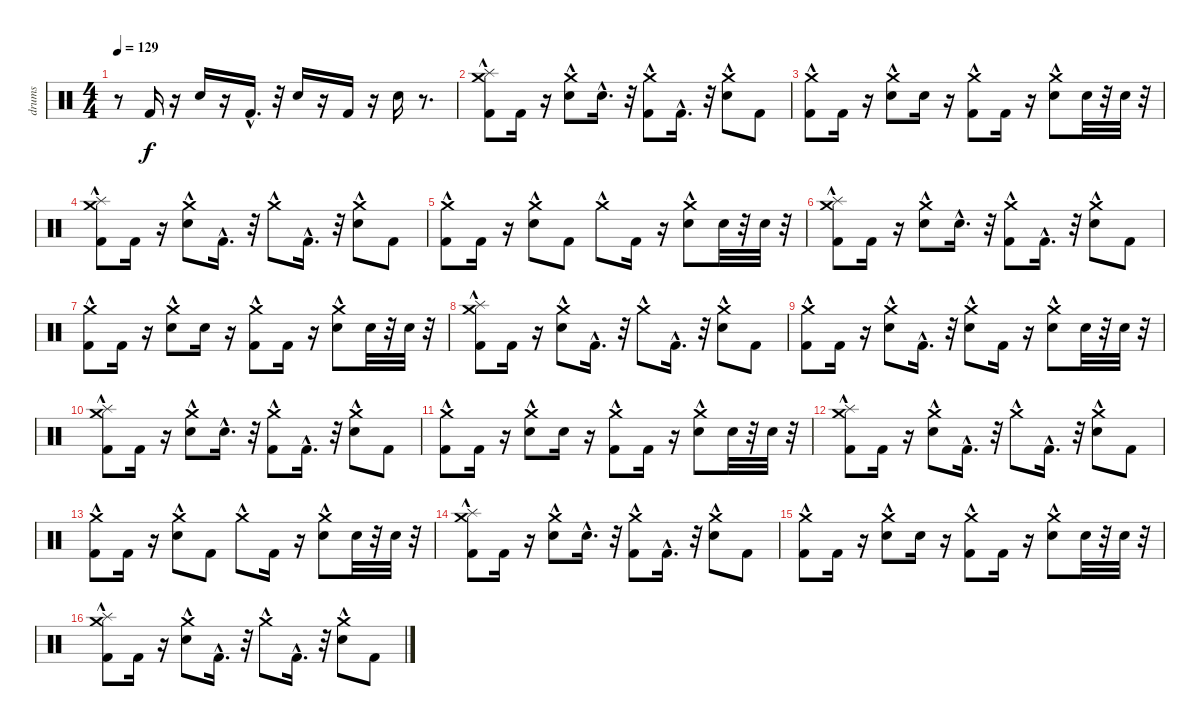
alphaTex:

\track ("drums" "drums") {instrument percussion}
\staff {score}
\articulation defaults
\ts (4 4)
\tempo 129
\clef neutral
\ks c
r.8{dy f} "Kick (hit) 2".16 r.16 "Snare (hit) 2".16 r.16 "Kick (hit) 2"{hac}.16{d} r.32 "Snare (hit) 2".16 r.16 "Kick (hit) 2".16 r.16 "Snare (hit) 2".16 r.8{d} |
("Kick (hit) 2" "Splash (hit)"{hac} "Crash medium (hit)"{hac}).8 "Kick (hit) 2".16 r.16 ("Snare (hit) 2" "Crash medium (hit)"{hac}).8 "Snare (hit) 2"{hac}.16{d} r.32 ("Kick (hit) 2"{hac} "Crash medium (hit)"{hac}).8 "Kick (hit) 2"{hac}.16{d} r.32 ("Snare (hit) 2" "Crash medium (hit)"{hac}).8 "Kick (hit) 2".8 |
("Kick (hit) 2" "Crash medium (hit)"{hac}).8 "Kick (hit) 2".16 r.16 ("Snare (hit) 2" "Crash medium (hit)"{hac}).8 "Snare (hit) 2".16 r.16 ("Kick (hit) 2" "Crash medium (hit)"{hac}).8 "Kick (hit) 2".16 r.16 ("Snare (hit) 2" "Crash medium (hit)"{hac}).8 "Snare (hit) 2".32 r.32 "Snare (hit) 2".32 r.32 |
("Crash medium (hit)"{hac} "Kick (hit) 2" "Splash (hit)"{hac}).8 "Kick (hit) 2".16 r.16 ("Crash medium (hit)"{hac} "Snare (hit) 2").8 "Kick (hit) 2"{hac}.16{d} r.32 "Crash medium (hit)"{hac}.8 "Kick (hit) 2"{hac}.16{d} r.32 ("Crash medium (hit)"{hac} "Snare (hit) 2").8 "Kick (hit) 2".8 |
("Crash medium (hit)"{hac} "Kick (hit) 2").8 "Kick (hit) 2".16 r.16 ("Crash medium (hit)"{hac} "Snare (hit) 2").8 "Kick (hit) 2".8 "Crash medium (hit)"{hac}.8 "Kick (hit) 2".16 r.16 ("Crash medium (hit)"{hac} "Snare (hit) 2").8 "Snare (hit) 2".32 r.32 "Snare (hit) 2".32 r.32 |
("Kick (hit) 2" "Splash (hit)"{hac} "Crash medium (hit)"{hac}).8 "Kick (hit) 2".16 r.16 ("Snare (hit) 2" "Crash medium (hit)"{hac}).8 "Snare (hit) 2"{hac}.16{d} r.32 ("Kick (hit) 2"{hac} "Crash medium (hit)"{hac}).8 "Kick (hit) 2"{hac}.16{d} r.32 ("Snare (hit) 2" "Crash medium (hit)"{hac}).8 "Kick (hit) 2".8 |
("Kick (hit) 2" "Crash medium (hit)"{hac}).8 "Kick (hit) 2".16 r.16 ("Snare (hit) 2" "Crash medium (hit)"{hac}).8 "Snare (hit) 2".16 r.16 ("Kick (hit) 2" "Crash medium (hit)"{hac}).8 "Kick (hit) 2".16 r.16 ("Snare (hit) 2" "Crash medium (hit)"{hac}).8 "Snare (hit) 2".32 r.32 "Snare (hit) 2".32 r.32 |
("Kick (hit) 2" "Splash (hit)"{hac} "Crash medium (hit)"{hac}).8 "Kick (hit) 2".16 r.16 ("Snare (hit) 2" "Crash medium (hit)"{hac}).8 "Kick (hit) 2"{hac}.16{d} r.32 "Crash medium (hit)"{hac}.8 "Kick (hit) 2"{hac}.16{d} r.32 ("Snare (hit) 2" "Crash medium (hit)"{hac}).8 "Kick (hit) 2".8 |
("Kick (hit) 2" "Crash medium (hit)"{hac}).8 "Kick (hit) 2".16 r.16 ("Snare (hit) 2" "Crash medium (hit)"{hac}).8 "Kick (hit) 2"{hac}.16{d} r.32 ("Snare (hit) 2" "Crash medium (hit)"{hac}).8 "Kick (hit) 2".16 r.16 ("Snare (hit) 2" "Crash medium (hit)"{hac}).8 "Snare (hit) 2".32 r.32 "Snare (hit) 2".32 r.32 |
("Kick (hit) 2" "Splash (hit)"{hac} "Crash medium (hit)"{hac}).8 "Kick (hit) 2".16 r.16 ("Snare (hit) 2" "Crash medium (hit)"{hac}).8 "Snare (hit) 2"{hac}.16{d} r.32 ("Kick (hit) 2"{hac} "Crash medium (hit)"{hac}).8 "Kick (hit) 2"{hac}.16{d} r.32 ("Snare (hit) 2" "Crash medium (hit)"{hac}).8 "Kick (hit) 2".8 |
("Kick (hit) 2" "Crash medium (hit)"{hac}).8 "Kick (hit) 2".16 r.16 ("Snare (hit) 2" "Crash medium (hit)"{hac}).8 "Snare (hit) 2".16 r.16 ("Kick (hit) 2" "Crash medium (hit)"{hac}).8 "Kick (hit) 2".16 r.16 ("Snare (hit) 2" "Crash medium (hit)"{hac}).8 "Snare (hit) 2".32 r.32 "Snare (hit) 2".32 r.32 |
("Kick (hit) 2" "Crash medium (hit)"{hac} "Splash (hit)"{hac}).8 "Kick (hit) 2".16 r.16 ("Snare (hit) 2" "Crash medium (hit)"{hac}).8 "Kick (hit) 2"{hac}.16{d} r.32 "Crash medium (hit)"{hac}.8 "Kick (hit) 2"{hac}.16{d} r.32 ("Snare (hit) 2" "Crash medium (hit)"{hac}).8 "Kick (hit) 2".8 |
("Kick (hit) 2" "Crash medium (hit)"{hac}).8 "Kick (hit) 2".16 r.16 ("Snare (hit) 2" "Crash medium (hit)"{hac}).8 "Kick (hit) 2".8 "Crash medium (hit)"{hac}.8 "Kick (hit) 2".16 r.16 ("Snare (hit) 2" "Crash medium (hit)"{hac}).8 "Snare (hit) 2".32 r.32 "Snare (hit) 2".32 r.32 |
("Kick (hit) 2" "Splash (hit)"{hac} "Crash medium (hit)"{hac}).8 "Kick (hit) 2".16 r.16 ("Snare (hit) 2" "Crash medium (hit)"{hac}).8 "Snare (hit) 2"{hac}.16{d} r.32 ("Kick (hit) 2"{hac} "Crash medium (hit)"{hac}).8 "Kick (hit) 2"{hac}.16{d} r.32 ("Snare (hit) 2" "Crash medium (hit)"{hac}).8 "Kick (hit) 2".8 |
("Kick (hit) 2" "Crash medium (hit)"{hac}).8 "Kick (hit) 2".16 r.16 ("Snare (hit) 2" "Crash medium (hit)"{hac}).8 "Snare (hit) 2".16 r.16 ("Kick (hit) 2" "Crash medium (hit)"{hac}).8 "Kick (hit) 2".16 r.16 ("Snare (hit) 2" "Crash medium (hit)"{hac}).8 "Snare (hit) 2".32 r.32 "Snare (hit) 2".32 r.32 |
("Kick (hit) 2" "Splash (hit)"{hac} "Crash medium (hit)"{hac}).8 "Kick (hit) 2".16 r.16 ("Snare (hit) 2" "Crash medium (hit)"{hac}).8 "Kick (hit) 2"{hac}.16{d} r.32 "Crash medium (hit)"{hac}.8 "Kick (hit) 2"{hac}.16{d} r.32 ("Snare (hit) 2" "Crash medium (hit)"{hac}).8 "Kick (hit) 2".8
